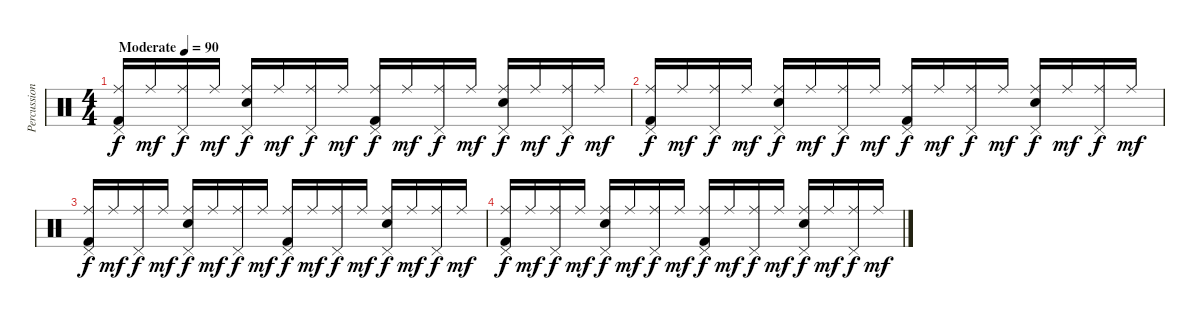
\track ("Percussion" "Percussion") {instrument percussion}
\staff {score}
\articulation defaults
\ts (4 4)
\tempo (90 "Moderate")
\clef neutral
\ks c
("Ride (middle)" "Pedal Hi-Hat (hit)" "Kick (hit) 2").16{dy f} "Ride (middle)".16{dy mf} ("Ride (middle)" "Pedal Hi-Hat (hit)").16{dy f} "Ride (middle)".16{dy mf} ("Ride (middle)" "Electric Snare (hit)" "Pedal Hi-Hat (hit)").16{dy f} "Ride (middle)".16{dy mf} ("Ride (middle)" "Pedal Hi-Hat (hit)").16{dy f} "Ride (middle)".16{dy mf} ("Ride (middle)" "Pedal Hi-Hat (hit)" "Kick (hit) 2").16{dy f} "Ride (middle)".16{dy mf} ("Ride (middle)" "Pedal Hi-Hat (hit)").16{dy f} "Ride (middle)".16{dy mf} ("Ride (middle)" "Electric Snare (hit)" "Pedal Hi-Hat (hit)").16{dy f} "Ride (middle)".16{dy mf} ("Ride (middle)" "Pedal Hi-Hat (hit)").16{dy f} "Ride (middle)".16{dy mf} |
("Ride (middle)" "Pedal Hi-Hat (hit)" "Kick (hit) 2").16{dy f} "Ride (middle)".16{dy mf} ("Ride (middle)" "Pedal Hi-Hat (hit)").16{dy f} "Ride (middle)".16{dy mf} ("Ride (middle)" "Electric Snare (hit)" "Pedal Hi-Hat (hit)").16{dy f} "Ride (middle)".16{dy mf} ("Ride (middle)" "Pedal Hi-Hat (hit)").16{dy f} "Ride (middle)".16{dy mf} ("Ride (middle)" "Pedal Hi-Hat (hit)" "Kick (hit) 2").16{dy f} "Ride (middle)".16{dy mf} ("Ride (middle)" "Pedal Hi-Hat (hit)").16{dy f} "Ride (middle)".16{dy mf} ("Ride (middle)" "Electric Snare (hit)" "Pedal Hi-Hat (hit)").16{dy f} "Ride (middle)".16{dy mf} ("Ride (middle)" "Pedal Hi-Hat (hit)").16{dy f} "Ride (middle)".16{dy mf} |
("Ride (middle)" "Pedal Hi-Hat (hit)" "Kick (hit) 2").16{dy f} "Ride (middle)".16{dy mf} ("Ride (middle)" "Pedal Hi-Hat (hit)").16{dy f} "Ride (middle)".16{dy mf} ("Ride (middle)" "Electric Snare (hit)" "Pedal Hi-Hat (hit)").16{dy f} "Ride (middle)".16{dy mf} ("Ride (middle)" "Pedal Hi-Hat (hit)").16{dy f} "Ride (middle)".16{dy mf} ("Ride (middle)" "Pedal Hi-Hat (hit)" "Kick (hit) 2").16{dy f} "Ride (middle)".16{dy mf} ("Ride (middle)" "Pedal Hi-Hat (hit)").16{dy f} "Ride (middle)".16{dy mf} ("Ride (middle)" "Electric Snare (hit)" "Pedal Hi-Hat (hit)").16{dy f} "Ride (middle)".16{dy mf} ("Ride (middle)" "Pedal Hi-Hat (hit)").16{dy f} "Ride (middle)".16{dy mf} |
("Ride (middle)" "Pedal Hi-Hat (hit)" "Kick (hit) 2").16{dy f} "Ride (middle)".16{dy mf} ("Ride (middle)" "Pedal Hi-Hat (hit)").16{dy f} "Ride (middle)".16{dy mf} ("Ride (middle)" "Electric Snare (hit)" "Pedal Hi-Hat (hit)").16{dy f} "Ride (middle)".16{dy mf} ("Ride (middle)" "Pedal Hi-Hat (hit)").16{dy f} "Ride (middle)".16{dy mf} ("Ride (middle)" "Pedal Hi-Hat (hit)" "Kick (hit) 2").16{dy f} "Ride (middle)".16{dy mf} ("Ride (middle)" "Pedal Hi-Hat (hit)").16{dy f} "Ride (middle)".16{dy mf} ("Ride (middle)" "Electric Snare (hit)" "Pedal Hi-Hat (hit)").16{dy f} "Ride (middle)".16{dy mf} ("Ride (middle)" "Pedal Hi-Hat (hit)").16{dy f} "Ride (middle)".16{dy mf}
